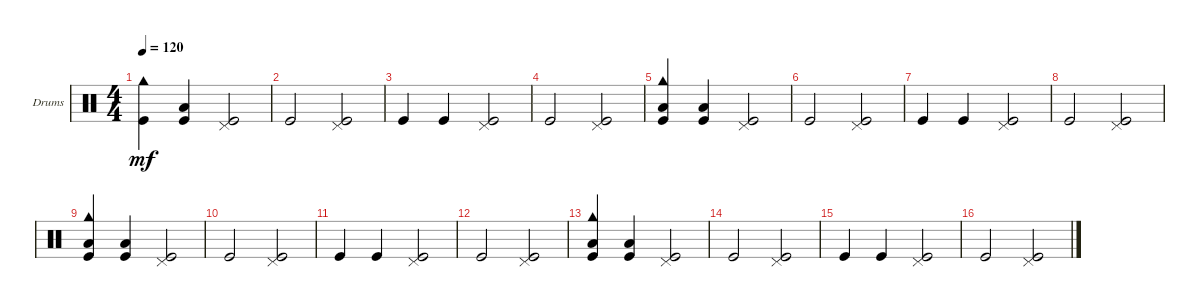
\bracketExtendMode groupsimilarinstruments
\firstSystemTrackNameOrientation horizontal
\otherSystemsTrackNameOrientation horizontal
\track ("Drumkit" "Drums") {instrument percussion}
\staff {score}
\articulation defaults
\ts (4 4)
\tempo 120
\clef neutral
\ks c
("Kick (hit)" "Cowbell high (hit)").4{dy mf} ("Kick (hit)" "Low Tom (hit)").4 ("Kick (hit)" "Pedal Hi-Hat (hit)").2 |
"Kick (hit)".2 ("Pedal Hi-Hat (hit)" "Kick (hit)").2 |
"Kick (hit)".4 "Kick (hit)".4 ("Kick (hit)" "Pedal Hi-Hat (hit)").2 |
"Kick (hit)".2 ("Pedal Hi-Hat (hit)" "Kick (hit)").2 |
("Kick (hit)" "Cowbell high (hit)" "Low Tom (hit)").4 ("Kick (hit)" "Low Tom (hit)").4 ("Kick (hit)" "Pedal Hi-Hat (hit)").2 |
"Kick (hit)".2 ("Pedal Hi-Hat (hit)" "Kick (hit)").2 |
"Kick (hit)".4 "Kick (hit)".4 ("Kick (hit)" "Pedal Hi-Hat (hit)").2 |
"Kick (hit)".2 ("Pedal Hi-Hat (hit)" "Kick (hit)").2 |
("Kick (hit)" "Cowbell high (hit)" "Low Tom (hit)").4 ("Kick (hit)" "Low Tom (hit)").4 ("Kick (hit)" "Pedal Hi-Hat (hit)").2 |
"Kick (hit)".2 ("Pedal Hi-Hat (hit)" "Kick (hit)").2 |
"Kick (hit)".4 "Kick (hit)".4 ("Kick (hit)" "Pedal Hi-Hat (hit)").2 |
"Kick (hit)".2 ("Pedal Hi-Hat (hit)" "Kick (hit)").2 |
("Kick (hit)" "Cowbell high (hit)" "Low Tom (hit)").4 ("Kick (hit)" "Low Tom (hit)").4 ("Kick (hit)" "Pedal Hi-Hat (hit)").2 |
"Kick (hit)".2 ("Pedal Hi-Hat (hit)" "Kick (hit)").2 |
"Kick (hit)".4 "Kick (hit)".4 ("Kick (hit)" "Pedal Hi-Hat (hit)").2 |
"Kick (hit)".2 ("Pedal Hi-Hat (hit)" "Kick (hit)").2
